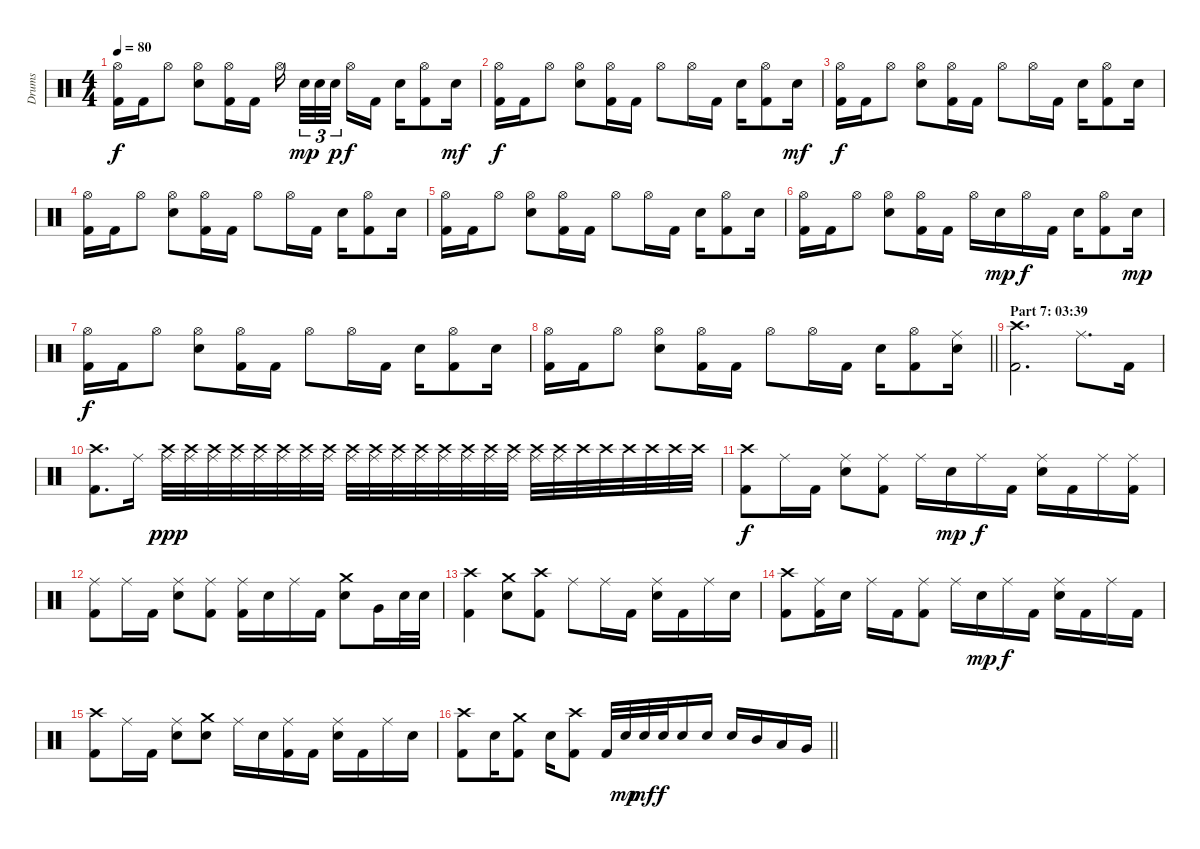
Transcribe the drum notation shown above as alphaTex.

\track ("Drums" "Drums") {instrument percussion}
\staff {score}
\articulation defaults
\ts (4 4)
\tempo 80
\clef neutral
\ks c
("Hi-Hat (open)" "Kick (hit) 2").16{dy f} "Kick (hit) 2".16 "Hi-Hat (open)".8 ("Hi-Hat (open)" "Electric Snare (hit)").8 ("Hi-Hat (open)" "Kick (hit) 2").16 "Kick (hit) 2".16 "Hi-Hat (open)".16{beam splitsecondary} "Electric Snare (hit)".32{tu (3 2) dy mp} "Electric Snare (hit)".32{tu (3 2)} "Electric Snare (hit)".32{tu (3 2) dy p beam splitsecondary} "Hi-Hat (open)".16{dy f} "Kick (hit) 2".16 "Electric Snare (hit)".16 ("Hi-Hat (open)" "Kick (hit) 2").8 "Electric Snare (hit)".16{dy mf} |
("Hi-Hat (open)" "Kick (hit) 2").16{dy f} "Kick (hit) 2".16 "Hi-Hat (open)".8 ("Hi-Hat (open)" "Electric Snare (hit)").8 ("Hi-Hat (open)" "Kick (hit) 2").16 "Kick (hit) 2".16 "Hi-Hat (open)".8 "Hi-Hat (open)".16 "Kick (hit) 2".16 "Electric Snare (hit)".16 ("Hi-Hat (open)" "Kick (hit) 2").8 "Electric Snare (hit)".16{dy mf} |
("Hi-Hat (open)" "Kick (hit) 2").16{dy f} "Kick (hit) 2".16 "Hi-Hat (open)".8 ("Hi-Hat (open)" "Electric Snare (hit)").8 ("Hi-Hat (open)" "Kick (hit) 2").16 "Kick (hit) 2".16 "Hi-Hat (open)".8 "Hi-Hat (open)".16 "Kick (hit) 2".16 "Electric Snare (hit)".16 ("Hi-Hat (open)" "Kick (hit) 2").8 "Electric Snare (hit)".16 |
("Hi-Hat (open)" "Kick (hit) 2").16 "Kick (hit) 2".16 "Hi-Hat (open)".8 ("Hi-Hat (open)" "Electric Snare (hit)").8 ("Hi-Hat (open)" "Kick (hit) 2").16 "Kick (hit) 2".16 "Hi-Hat (open)".8 "Hi-Hat (open)".16 "Kick (hit) 2".16 "Electric Snare (hit)".16 ("Hi-Hat (open)" "Kick (hit) 2").8 "Electric Snare (hit)".16 |
("Hi-Hat (open)" "Kick (hit) 2").16 "Kick (hit) 2".16 "Hi-Hat (open)".8 ("Hi-Hat (open)" "Electric Snare (hit)").8 ("Hi-Hat (open)" "Kick (hit) 2").16 "Kick (hit) 2".16 "Hi-Hat (open)".8 "Hi-Hat (open)".16 "Kick (hit) 2".16 "Electric Snare (hit)".16 ("Hi-Hat (open)" "Kick (hit) 2").8 "Electric Snare (hit)".16 |
("Hi-Hat (open)" "Kick (hit) 2").16 "Kick (hit) 2".16 "Hi-Hat (open)".8 ("Hi-Hat (open)" "Electric Snare (hit)").8 ("Hi-Hat (open)" "Kick (hit) 2").16 "Kick (hit) 2".16 "Hi-Hat (open)".16 "Electric Snare (hit)".16{dy mp} "Hi-Hat (open)".16{dy f} "Kick (hit) 2".16 "Electric Snare (hit)".16 ("Hi-Hat (open)" "Kick (hit) 2").8 "Electric Snare (hit)".16{dy mp} |
("Hi-Hat (open)" "Kick (hit) 2").16{dy f} "Kick (hit) 2".16 "Hi-Hat (open)".8 ("Hi-Hat (open)" "Electric Snare (hit)").8 ("Hi-Hat (open)" "Kick (hit) 2").16 "Kick (hit) 2".16 "Hi-Hat (open)".8 "Hi-Hat (open)".16 "Kick (hit) 2".16 "Electric Snare (hit)".16 ("Hi-Hat (open)" "Kick (hit) 2").8 "Electric Snare (hit)".16 |
\barLineRight lightlight
("Hi-Hat (open)" "Kick (hit) 2").16 "Kick (hit) 2".16 "Hi-Hat (open)".8 ("Hi-Hat (open)" "Electric Snare (hit)").8 ("Hi-Hat (open)" "Kick (hit) 2").16 "Kick (hit) 2".16 "Hi-Hat (open)".8 "Hi-Hat (open)".16 "Kick (hit) 2".16 "Electric Snare (hit)".16 ("Hi-Hat (open)" "Kick (hit) 2").8 ("Ride (middle)" "Electric Snare (hit)").16 |
\section ("" "Part 7: 03:39")
("Crash high (hit)" "Kick (hit) 2").2{d} "Ride (middle)".8{d} "Kick (hit) 2".16 |
("Crash high (hit)" "Kick (hit) 2").8{d} "Ride (middle)".16 ("Ride (middle)" "Crash high (hit)").32{dy ppp} ("Ride (middle)" "Crash high (hit)").32 ("Ride (middle)" "Crash high (hit)").32 ("Ride (middle)" "Crash high (hit)").32 ("Ride (middle)" "Crash high (hit)").32 ("Ride (middle)" "Crash high (hit)").32 ("Ride (middle)" "Crash high (hit)").32 ("Ride (middle)" "Crash high (hit)").32 ("Ride (middle)" "Crash high (hit)").32 ("Ride (middle)" "Crash high (hit)").32 ("Ride (middle)" "Crash high (hit)").32 ("Ride (middle)" "Crash high (hit)").32 ("Ride (middle)" "Crash high (hit)").32 ("Ride (middle)" "Crash high (hit)").32 ("Ride (middle)" "Crash high (hit)").32 ("Ride (middle)" "Crash high (hit)").32 ("Ride (middle)" "Crash high (hit)").32 ("Ride (middle)" "Crash high (hit)").32 "Crash high (hit)".32 "Crash high (hit)".32 "Crash high (hit)".32 "Crash high (hit)".32 "Crash high (hit)".32 "Crash high (hit)".32 |
("Crash high (hit)" "Kick (hit) 2").8{dy f} "Ride (middle)".16 "Kick (hit) 2".16 ("Ride (middle)" "Electric Snare (hit)").8 ("Ride (middle)" "Kick (hit) 2").8 "Ride (middle)".16 "Electric Snare (hit)".16{dy mp} "Ride (middle)".16{dy f} "Kick (hit) 2".16 ("Ride (middle)" "Electric Snare (hit)").16 "Kick (hit) 2".16 "Ride (middle)".16 ("Ride (middle)" "Kick (hit) 2").16 |
("Ride (middle)" "Kick (hit) 2").8 "Ride (middle)".16 "Kick (hit) 2".16 ("Ride (middle)" "Electric Snare (hit)").8 ("Ride (middle)" "Kick (hit) 2").8 ("Ride (middle)" "Kick (hit) 2").16 "Electric Snare (hit)".16 "Ride (middle)".16 "Kick (hit) 2".16 ("Crash medium (hit)" "Electric Snare (hit)").8 "Very Low Tom (hit)".16 "Electric Snare (hit)".32 "Electric Snare (hit)".32 |
("Crash high (hit)" "Kick (hit) 2").4 ("Crash medium (hit)" "Electric Snare (hit)").8 ("Crash high (hit)" "Kick (hit) 2").8 "Ride (middle)".8 "Ride (middle)".16 "Kick (hit) 2".16 ("Ride (middle)" "Electric Snare (hit)").16 "Kick (hit) 2".16 "Ride (middle)".16 "Electric Snare (hit)".16 |
("Crash high (hit)" "Kick (hit) 2").8 ("Ride (middle)" "Kick (hit) 2").16 "Electric Snare (hit)".16 "Ride (middle)".16 "Kick (hit) 2".16 ("Ride (middle)" "Kick (hit) 2").8 "Ride (middle)".16 "Electric Snare (hit)".16{dy mp} "Ride (middle)".16{dy f} "Kick (hit) 2".16 ("Ride (middle)" "Electric Snare (hit)").16 "Kick (hit) 2".16 "Ride (middle)".16 "Kick (hit) 2".16 |
("Crash high (hit)" "Kick (hit) 2").8 "Ride (middle)".16 "Kick (hit) 2".16 ("Ride (middle)" "Electric Snare (hit)").8 ("Crash medium (hit)" "Electric Snare (hit)").8 "Ride (middle)".16 "Electric Snare (hit)".16 ("Ride (middle)" "Kick (hit) 2").16 "Kick (hit) 2".16 ("Ride (middle)" "Electric Snare (hit)").16 "Kick (hit) 2".16 "Ride (middle)".16 "Electric Snare (hit)".16 |
\barLineRight lightlight
("Crash high (hit)" "Kick (hit) 2").8 "Electric Snare (hit)".16 ("Crash medium (hit)" "Kick (hit) 2").8 "Electric Snare (hit)".16 ("Crash high (hit)" "Kick (hit) 2").8 "Kick (hit) 2".32 "Electric Snare (hit)".32{dy mp} "Electric Snare (hit)".32{dy mf} "Electric Snare (hit)".32{dy f} "Electric Snare (hit)".16 "Electric Snare (hit)".16 "Electric Snare (hit)".16 "Mid Tom (hit)".16 "Low Tom (hit)".16 "Very Low Tom (hit)".16
